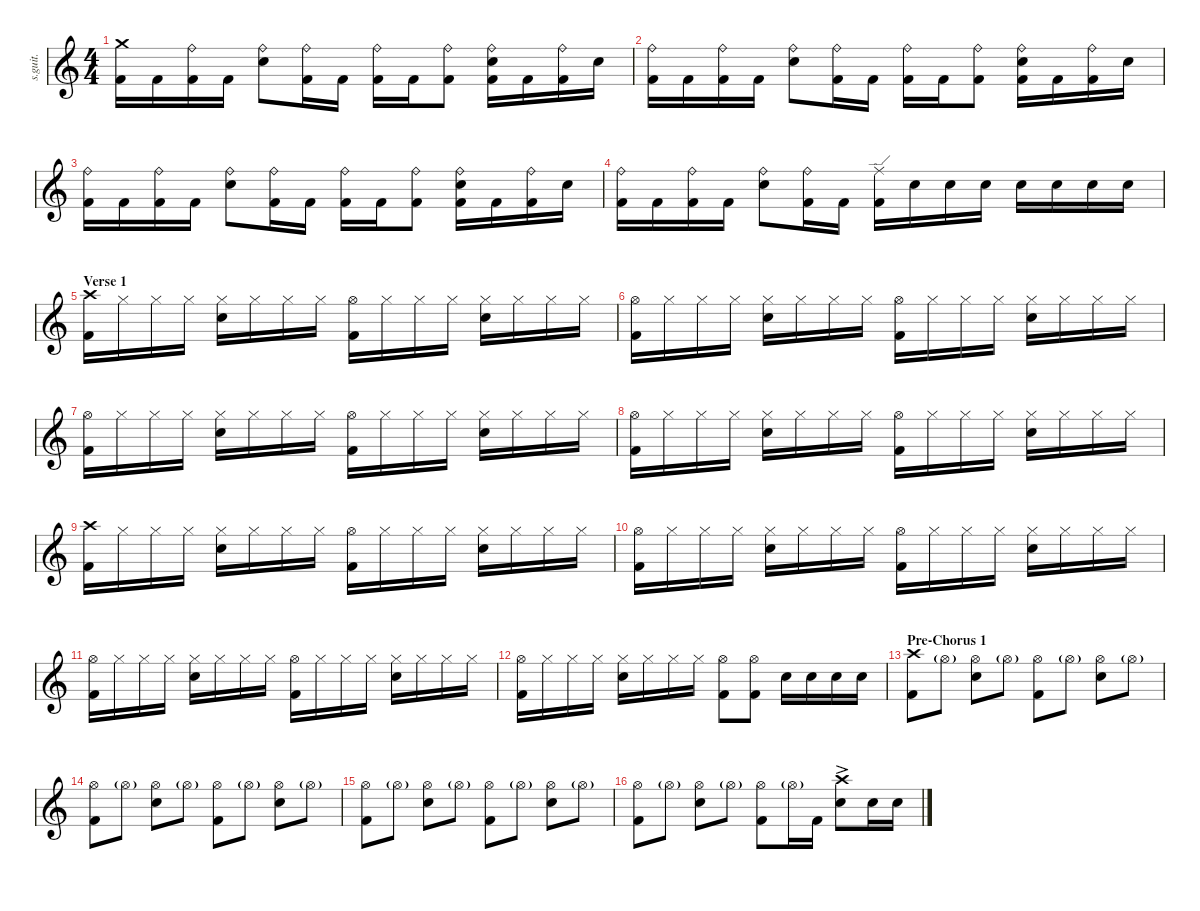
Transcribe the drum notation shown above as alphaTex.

\defaultSystemsLayout 4
\hideDynamics
\bracketExtendMode nobrackets
\track ("Mike Wengren" "s.guit.") {instrument percussion}
\staff {score}
\articulation defaults
\ts (4 4)
\tempo (90 hide)
\clef g2
\ks c
("Kick (hit) 2" "Crash medium (hit)").16{lyrics (0 "") lyrics (1 "") lyrics (2 "") lyrics (3 "") lyrics (4 "") dy ff} "Kick (hit) 2".16{lyrics (0 "") lyrics (1 "") lyrics (2 "") lyrics (3 "") lyrics (4 "")} ("Ride (bell)" "Kick (hit) 2").16{lyrics (0 "") lyrics (1 "") lyrics (2 "") lyrics (3 "") lyrics (4 "")} "Kick (hit) 2".16{lyrics (0 "") lyrics (1 "") lyrics (2 "") lyrics (3 "") lyrics (4 "")} ("Ride (bell)" "Snare (hit) 2").8{lyrics (0 "") lyrics (1 "") lyrics (2 "") lyrics (3 "") lyrics (4 "")} ("Ride (bell)" "Kick (hit) 2").16{lyrics (0 "") lyrics (1 "") lyrics (2 "") lyrics (3 "") lyrics (4 "")} "Kick (hit) 2".16{lyrics (0 "") lyrics (1 "") lyrics (2 "") lyrics (3 "") lyrics (4 "")} ("Ride (bell)" "Kick (hit) 2").16{lyrics (0 "") lyrics (1 "") lyrics (2 "") lyrics (3 "") lyrics (4 "")} "Kick (hit) 2".16{lyrics (0 "") lyrics (1 "") lyrics (2 "") lyrics (3 "") lyrics (4 "")} ("Ride (bell)" "Kick (hit) 2").8{lyrics (0 "") lyrics (1 "") lyrics (2 "") lyrics (3 "") lyrics (4 "")} ("Ride (bell)" "Kick (hit) 2" "Snare (hit) 2").16{lyrics (0 "") lyrics (1 "") lyrics (2 "") lyrics (3 "") lyrics (4 "")} "Kick (hit) 2".16{lyrics (0 "") lyrics (1 "") lyrics (2 "") lyrics (3 "") lyrics (4 "")} ("Ride (bell)" "Kick (hit) 2").16{lyrics (0 "") lyrics (1 "") lyrics (2 "") lyrics (3 "") lyrics (4 "")} "Snare (hit) 2".16{lyrics (0 "") lyrics (1 "") lyrics (2 "") lyrics (3 "") lyrics (4 "")} |
("Kick (hit) 2" "Ride (bell)").16{lyrics (0 "") lyrics (1 "") lyrics (2 "") lyrics (3 "") lyrics (4 "")} "Kick (hit) 2".16{lyrics (0 "") lyrics (1 "") lyrics (2 "") lyrics (3 "") lyrics (4 "")} ("Ride (bell)" "Kick (hit) 2").16{lyrics (0 "") lyrics (1 "") lyrics (2 "") lyrics (3 "") lyrics (4 "")} "Kick (hit) 2".16{lyrics (0 "") lyrics (1 "") lyrics (2 "") lyrics (3 "") lyrics (4 "")} ("Ride (bell)" "Snare (hit) 2").8{lyrics (0 "") lyrics (1 "") lyrics (2 "") lyrics (3 "") lyrics (4 "")} ("Ride (bell)" "Kick (hit) 2").16{lyrics (0 "") lyrics (1 "") lyrics (2 "") lyrics (3 "") lyrics (4 "")} "Kick (hit) 2".16{lyrics (0 "") lyrics (1 "") lyrics (2 "") lyrics (3 "") lyrics (4 "")} ("Ride (bell)" "Kick (hit) 2").16{lyrics (0 "") lyrics (1 "") lyrics (2 "") lyrics (3 "") lyrics (4 "")} "Kick (hit) 2".16{lyrics (0 "") lyrics (1 "") lyrics (2 "") lyrics (3 "") lyrics (4 "")} ("Ride (bell)" "Kick (hit) 2").8{lyrics (0 "") lyrics (1 "") lyrics (2 "") lyrics (3 "") lyrics (4 "")} ("Ride (bell)" "Kick (hit) 2" "Snare (hit) 2").16{lyrics (0 "") lyrics (1 "") lyrics (2 "") lyrics (3 "") lyrics (4 "")} "Kick (hit) 2".16{lyrics (0 "") lyrics (1 "") lyrics (2 "") lyrics (3 "") lyrics (4 "")} ("Ride (bell)" "Kick (hit) 2").16{lyrics (0 "") lyrics (1 "") lyrics (2 "") lyrics (3 "") lyrics (4 "")} "Snare (hit) 2".16{lyrics (0 "") lyrics (1 "") lyrics (2 "") lyrics (3 "") lyrics (4 "")} |
("Kick (hit) 2" "Ride (bell)").16{lyrics (0 "") lyrics (1 "") lyrics (2 "") lyrics (3 "") lyrics (4 "")} "Kick (hit) 2".16{lyrics (0 "") lyrics (1 "") lyrics (2 "") lyrics (3 "") lyrics (4 "")} ("Ride (bell)" "Kick (hit) 2").16{lyrics (0 "") lyrics (1 "") lyrics (2 "") lyrics (3 "") lyrics (4 "")} "Kick (hit) 2".16{lyrics (0 "") lyrics (1 "") lyrics (2 "") lyrics (3 "") lyrics (4 "")} ("Ride (bell)" "Snare (hit) 2").8{lyrics (0 "") lyrics (1 "") lyrics (2 "") lyrics (3 "") lyrics (4 "")} ("Ride (bell)" "Kick (hit) 2").16{lyrics (0 "") lyrics (1 "") lyrics (2 "") lyrics (3 "") lyrics (4 "")} "Kick (hit) 2".16{lyrics (0 "") lyrics (1 "") lyrics (2 "") lyrics (3 "") lyrics (4 "")} ("Ride (bell)" "Kick (hit) 2").16{lyrics (0 "") lyrics (1 "") lyrics (2 "") lyrics (3 "") lyrics (4 "")} "Kick (hit) 2".16{lyrics (0 "") lyrics (1 "") lyrics (2 "") lyrics (3 "") lyrics (4 "")} ("Ride (bell)" "Kick (hit) 2").8{lyrics (0 "") lyrics (1 "") lyrics (2 "") lyrics (3 "") lyrics (4 "")} ("Ride (bell)" "Kick (hit) 2" "Snare (hit) 2").16{lyrics (0 "") lyrics (1 "") lyrics (2 "") lyrics (3 "") lyrics (4 "")} "Kick (hit) 2".16{lyrics (0 "") lyrics (1 "") lyrics (2 "") lyrics (3 "") lyrics (4 "")} ("Ride (bell)" "Kick (hit) 2").16{lyrics (0 "") lyrics (1 "") lyrics (2 "") lyrics (3 "") lyrics (4 "")} "Snare (hit) 2".16{lyrics (0 "") lyrics (1 "") lyrics (2 "") lyrics (3 "") lyrics (4 "")} |
("Kick (hit) 2" "Ride (bell)").16{lyrics (0 "") lyrics (1 "") lyrics (2 "") lyrics (3 "") lyrics (4 "")} "Kick (hit) 2".16{lyrics (0 "") lyrics (1 "") lyrics (2 "") lyrics (3 "") lyrics (4 "")} ("Ride (bell)" "Kick (hit) 2").16{lyrics (0 "") lyrics (1 "") lyrics (2 "") lyrics (3 "") lyrics (4 "")} "Kick (hit) 2".16{lyrics (0 "") lyrics (1 "") lyrics (2 "") lyrics (3 "") lyrics (4 "")} ("Ride (bell)" "Snare (hit) 2").8{lyrics (0 "") lyrics (1 "") lyrics (2 "") lyrics (3 "") lyrics (4 "")} ("Ride (bell)" "Kick (hit) 2").16{lyrics (0 "") lyrics (1 "") lyrics (2 "") lyrics (3 "") lyrics (4 "")} "Kick (hit) 2".16{lyrics (0 "") lyrics (1 "") lyrics (2 "") lyrics (3 "") lyrics (4 "")} ("Kick (hit) 2" "Ride (edge)").16{lyrics (0 "") lyrics (1 "") lyrics (2 "") lyrics (3 "") lyrics (4 "")} "Snare (hit) 2".16{lyrics (0 "") lyrics (1 "") lyrics (2 "") lyrics (3 "") lyrics (4 "")} "Snare (hit) 2".16{lyrics (0 "") lyrics (1 "") lyrics (2 "") lyrics (3 "") lyrics (4 "")} "Snare (hit) 2".16{lyrics (0 "") lyrics (1 "") lyrics (2 "") lyrics (3 "") lyrics (4 "")} "Snare (hit) 2".16{lyrics (0 "") lyrics (1 "") lyrics (2 "") lyrics (3 "") lyrics (4 "")} "Snare (hit) 2".16{lyrics (0 "") lyrics (1 "") lyrics (2 "") lyrics (3 "") lyrics (4 "")} "Snare (hit) 2".16{lyrics (0 "") lyrics (1 "") lyrics (2 "") lyrics (3 "") lyrics (4 "")} "Snare (hit) 2".16{lyrics (0 "") lyrics (1 "") lyrics (2 "") lyrics (3 "") lyrics (4 "")} |
\section ("" "Verse 1")
("Crash high (hit)" "Kick (hit) 2").16{lyrics (0 "") lyrics (1 "") lyrics (2 "") lyrics (3 "") lyrics (4 "")} "Hi-Hat (closed)".16{lyrics (0 "") lyrics (1 "") lyrics (2 "") lyrics (3 "") lyrics (4 "")} "Hi-Hat (closed)".16{lyrics (0 "") lyrics (1 "") lyrics (2 "") lyrics (3 "") lyrics (4 "")} "Hi-Hat (closed)".16{lyrics (0 "") lyrics (1 "") lyrics (2 "") lyrics (3 "") lyrics (4 "")} ("Hi-Hat (closed)" "Snare (hit) 2").16{lyrics (0 "") lyrics (1 "") lyrics (2 "") lyrics (3 "") lyrics (4 "")} "Hi-Hat (closed)".16{lyrics (0 "") lyrics (1 "") lyrics (2 "") lyrics (3 "") lyrics (4 "")} "Hi-Hat (closed)".16{lyrics (0 "") lyrics (1 "") lyrics (2 "") lyrics (3 "") lyrics (4 "")} "Hi-Hat (closed)".16{lyrics (0 "") lyrics (1 "") lyrics (2 "") lyrics (3 "") lyrics (4 "")} ("Hi-Hat (open)" "Kick (hit) 2").16{lyrics (0 "") lyrics (1 "") lyrics (2 "") lyrics (3 "") lyrics (4 "")} "Hi-Hat (closed)".16{lyrics (0 "") lyrics (1 "") lyrics (2 "") lyrics (3 "") lyrics (4 "")} "Hi-Hat (closed)".16{lyrics (0 "") lyrics (1 "") lyrics (2 "") lyrics (3 "") lyrics (4 "")} "Hi-Hat (closed)".16{lyrics (0 "") lyrics (1 "") lyrics (2 "") lyrics (3 "") lyrics (4 "")} ("Hi-Hat (closed)" "Snare (hit) 2").16{lyrics (0 "") lyrics (1 "") lyrics (2 "") lyrics (3 "") lyrics (4 "")} "Hi-Hat (closed)".16{lyrics (0 "") lyrics (1 "") lyrics (2 "") lyrics (3 "") lyrics (4 "")} "Hi-Hat (closed)".16{lyrics (0 "") lyrics (1 "") lyrics (2 "") lyrics (3 "") lyrics (4 "")} "Hi-Hat (closed)".16{lyrics (0 "") lyrics (1 "") lyrics (2 "") lyrics (3 "") lyrics (4 "")} |
("Hi-Hat (open)" "Kick (hit) 2").16{lyrics (0 "") lyrics (1 "") lyrics (2 "") lyrics (3 "") lyrics (4 "")} "Hi-Hat (closed)".16{lyrics (0 "") lyrics (1 "") lyrics (2 "") lyrics (3 "") lyrics (4 "")} "Hi-Hat (closed)".16{lyrics (0 "") lyrics (1 "") lyrics (2 "") lyrics (3 "") lyrics (4 "")} "Hi-Hat (closed)".16{lyrics (0 "") lyrics (1 "") lyrics (2 "") lyrics (3 "") lyrics (4 "")} ("Hi-Hat (closed)" "Snare (hit) 2").16{lyrics (0 "") lyrics (1 "") lyrics (2 "") lyrics (3 "") lyrics (4 "")} "Hi-Hat (closed)".16{lyrics (0 "") lyrics (1 "") lyrics (2 "") lyrics (3 "") lyrics (4 "")} "Hi-Hat (closed)".16{lyrics (0 "") lyrics (1 "") lyrics (2 "") lyrics (3 "") lyrics (4 "")} "Hi-Hat (closed)".16{lyrics (0 "") lyrics (1 "") lyrics (2 "") lyrics (3 "") lyrics (4 "")} ("Hi-Hat (open)" "Kick (hit) 2").16{lyrics (0 "") lyrics (1 "") lyrics (2 "") lyrics (3 "") lyrics (4 "")} "Hi-Hat (closed)".16{lyrics (0 "") lyrics (1 "") lyrics (2 "") lyrics (3 "") lyrics (4 "")} "Hi-Hat (closed)".16{lyrics (0 "") lyrics (1 "") lyrics (2 "") lyrics (3 "") lyrics (4 "")} "Hi-Hat (closed)".16{lyrics (0 "") lyrics (1 "") lyrics (2 "") lyrics (3 "") lyrics (4 "")} ("Hi-Hat (closed)" "Snare (hit) 2").16{lyrics (0 "") lyrics (1 "") lyrics (2 "") lyrics (3 "") lyrics (4 "")} "Hi-Hat (closed)".16{lyrics (0 "") lyrics (1 "") lyrics (2 "") lyrics (3 "") lyrics (4 "")} "Hi-Hat (closed)".16{lyrics (0 "") lyrics (1 "") lyrics (2 "") lyrics (3 "") lyrics (4 "")} "Hi-Hat (closed)".16{lyrics (0 "") lyrics (1 "") lyrics (2 "") lyrics (3 "") lyrics (4 "")} |
("Hi-Hat (open)" "Kick (hit) 2").16{lyrics (0 "") lyrics (1 "") lyrics (2 "") lyrics (3 "") lyrics (4 "")} "Hi-Hat (closed)".16{lyrics (0 "") lyrics (1 "") lyrics (2 "") lyrics (3 "") lyrics (4 "")} "Hi-Hat (closed)".16{lyrics (0 "") lyrics (1 "") lyrics (2 "") lyrics (3 "") lyrics (4 "")} "Hi-Hat (closed)".16{lyrics (0 "") lyrics (1 "") lyrics (2 "") lyrics (3 "") lyrics (4 "")} ("Hi-Hat (closed)" "Snare (hit) 2").16{lyrics (0 "") lyrics (1 "") lyrics (2 "") lyrics (3 "") lyrics (4 "")} "Hi-Hat (closed)".16{lyrics (0 "") lyrics (1 "") lyrics (2 "") lyrics (3 "") lyrics (4 "")} "Hi-Hat (closed)".16{lyrics (0 "") lyrics (1 "") lyrics (2 "") lyrics (3 "") lyrics (4 "")} "Hi-Hat (closed)".16{lyrics (0 "") lyrics (1 "") lyrics (2 "") lyrics (3 "") lyrics (4 "")} ("Hi-Hat (open)" "Kick (hit) 2").16{lyrics (0 "") lyrics (1 "") lyrics (2 "") lyrics (3 "") lyrics (4 "")} "Hi-Hat (closed)".16{lyrics (0 "") lyrics (1 "") lyrics (2 "") lyrics (3 "") lyrics (4 "")} "Hi-Hat (closed)".16{lyrics (0 "") lyrics (1 "") lyrics (2 "") lyrics (3 "") lyrics (4 "")} "Hi-Hat (closed)".16{lyrics (0 "") lyrics (1 "") lyrics (2 "") lyrics (3 "") lyrics (4 "")} ("Hi-Hat (closed)" "Snare (hit) 2").16{lyrics (0 "") lyrics (1 "") lyrics (2 "") lyrics (3 "") lyrics (4 "")} "Hi-Hat (closed)".16{lyrics (0 "") lyrics (1 "") lyrics (2 "") lyrics (3 "") lyrics (4 "")} "Hi-Hat (closed)".16{lyrics (0 "") lyrics (1 "") lyrics (2 "") lyrics (3 "") lyrics (4 "")} "Hi-Hat (closed)".16{lyrics (0 "") lyrics (1 "") lyrics (2 "") lyrics (3 "") lyrics (4 "")} |
("Hi-Hat (open)" "Kick (hit) 2").16{lyrics (0 "") lyrics (1 "") lyrics (2 "") lyrics (3 "") lyrics (4 "")} "Hi-Hat (closed)".16{lyrics (0 "") lyrics (1 "") lyrics (2 "") lyrics (3 "") lyrics (4 "")} "Hi-Hat (closed)".16{lyrics (0 "") lyrics (1 "") lyrics (2 "") lyrics (3 "") lyrics (4 "")} "Hi-Hat (closed)".16{lyrics (0 "") lyrics (1 "") lyrics (2 "") lyrics (3 "") lyrics (4 "")} ("Hi-Hat (closed)" "Snare (hit) 2").16{lyrics (0 "") lyrics (1 "") lyrics (2 "") lyrics (3 "") lyrics (4 "")} "Hi-Hat (closed)".16{lyrics (0 "") lyrics (1 "") lyrics (2 "") lyrics (3 "") lyrics (4 "")} "Hi-Hat (closed)".16{lyrics (0 "") lyrics (1 "") lyrics (2 "") lyrics (3 "") lyrics (4 "")} "Hi-Hat (closed)".16{lyrics (0 "") lyrics (1 "") lyrics (2 "") lyrics (3 "") lyrics (4 "")} ("Hi-Hat (open)" "Kick (hit) 2").16{lyrics (0 "") lyrics (1 "") lyrics (2 "") lyrics (3 "") lyrics (4 "")} "Hi-Hat (closed)".16{lyrics (0 "") lyrics (1 "") lyrics (2 "") lyrics (3 "") lyrics (4 "")} "Hi-Hat (closed)".16{lyrics (0 "") lyrics (1 "") lyrics (2 "") lyrics (3 "") lyrics (4 "")} "Hi-Hat (closed)".16{lyrics (0 "") lyrics (1 "") lyrics (2 "") lyrics (3 "") lyrics (4 "")} ("Hi-Hat (closed)" "Snare (hit) 2").16{lyrics (0 "") lyrics (1 "") lyrics (2 "") lyrics (3 "") lyrics (4 "")} "Hi-Hat (closed)".16{lyrics (0 "") lyrics (1 "") lyrics (2 "") lyrics (3 "") lyrics (4 "")} "Hi-Hat (closed)".16{lyrics (0 "") lyrics (1 "") lyrics (2 "") lyrics (3 "") lyrics (4 "")} "Hi-Hat (closed)".16{lyrics (0 "") lyrics (1 "") lyrics (2 "") lyrics (3 "") lyrics (4 "")} |
("Crash high (hit)" "Kick (hit) 2").16{lyrics (0 "") lyrics (1 "") lyrics (2 "") lyrics (3 "") lyrics (4 "")} "Hi-Hat (closed)".16{lyrics (0 "") lyrics (1 "") lyrics (2 "") lyrics (3 "") lyrics (4 "")} "Hi-Hat (closed)".16{lyrics (0 "") lyrics (1 "") lyrics (2 "") lyrics (3 "") lyrics (4 "")} "Hi-Hat (closed)".16{lyrics (0 "") lyrics (1 "") lyrics (2 "") lyrics (3 "") lyrics (4 "")} ("Hi-Hat (closed)" "Snare (hit) 2").16{lyrics (0 "") lyrics (1 "") lyrics (2 "") lyrics (3 "") lyrics (4 "")} "Hi-Hat (closed)".16{lyrics (0 "") lyrics (1 "") lyrics (2 "") lyrics (3 "") lyrics (4 "")} "Hi-Hat (closed)".16{lyrics (0 "") lyrics (1 "") lyrics (2 "") lyrics (3 "") lyrics (4 "")} "Hi-Hat (closed)".16{lyrics (0 "") lyrics (1 "") lyrics (2 "") lyrics (3 "") lyrics (4 "")} ("Hi-Hat (open)" "Kick (hit) 2").16{lyrics (0 "") lyrics (1 "") lyrics (2 "") lyrics (3 "") lyrics (4 "")} "Hi-Hat (closed)".16{lyrics (0 "") lyrics (1 "") lyrics (2 "") lyrics (3 "") lyrics (4 "")} "Hi-Hat (closed)".16{lyrics (0 "") lyrics (1 "") lyrics (2 "") lyrics (3 "") lyrics (4 "")} "Hi-Hat (closed)".16{lyrics (0 "") lyrics (1 "") lyrics (2 "") lyrics (3 "") lyrics (4 "")} ("Hi-Hat (closed)" "Snare (hit) 2").16{lyrics (0 "") lyrics (1 "") lyrics (2 "") lyrics (3 "") lyrics (4 "")} "Hi-Hat (closed)".16{lyrics (0 "") lyrics (1 "") lyrics (2 "") lyrics (3 "") lyrics (4 "")} "Hi-Hat (closed)".16{lyrics (0 "") lyrics (1 "") lyrics (2 "") lyrics (3 "") lyrics (4 "")} "Hi-Hat (closed)".16{lyrics (0 "") lyrics (1 "") lyrics (2 "") lyrics (3 "") lyrics (4 "")} |
("Hi-Hat (open)" "Kick (hit) 2").16{lyrics (0 "") lyrics (1 "") lyrics (2 "") lyrics (3 "") lyrics (4 "")} "Hi-Hat (closed)".16{lyrics (0 "") lyrics (1 "") lyrics (2 "") lyrics (3 "") lyrics (4 "")} "Hi-Hat (closed)".16{lyrics (0 "") lyrics (1 "") lyrics (2 "") lyrics (3 "") lyrics (4 "")} "Hi-Hat (closed)".16{lyrics (0 "") lyrics (1 "") lyrics (2 "") lyrics (3 "") lyrics (4 "")} ("Hi-Hat (closed)" "Snare (hit) 2").16{lyrics (0 "") lyrics (1 "") lyrics (2 "") lyrics (3 "") lyrics (4 "")} "Hi-Hat (closed)".16{lyrics (0 "") lyrics (1 "") lyrics (2 "") lyrics (3 "") lyrics (4 "")} "Hi-Hat (closed)".16{lyrics (0 "") lyrics (1 "") lyrics (2 "") lyrics (3 "") lyrics (4 "")} "Hi-Hat (closed)".16{lyrics (0 "") lyrics (1 "") lyrics (2 "") lyrics (3 "") lyrics (4 "")} ("Hi-Hat (open)" "Kick (hit) 2").16{lyrics (0 "") lyrics (1 "") lyrics (2 "") lyrics (3 "") lyrics (4 "")} "Hi-Hat (closed)".16{lyrics (0 "") lyrics (1 "") lyrics (2 "") lyrics (3 "") lyrics (4 "")} "Hi-Hat (closed)".16{lyrics (0 "") lyrics (1 "") lyrics (2 "") lyrics (3 "") lyrics (4 "")} "Hi-Hat (closed)".16{lyrics (0 "") lyrics (1 "") lyrics (2 "") lyrics (3 "") lyrics (4 "")} ("Hi-Hat (closed)" "Snare (hit) 2").16{lyrics (0 "") lyrics (1 "") lyrics (2 "") lyrics (3 "") lyrics (4 "")} "Hi-Hat (closed)".16{lyrics (0 "") lyrics (1 "") lyrics (2 "") lyrics (3 "") lyrics (4 "")} "Hi-Hat (closed)".16{lyrics (0 "") lyrics (1 "") lyrics (2 "") lyrics (3 "") lyrics (4 "")} "Hi-Hat (closed)".16{lyrics (0 "") lyrics (1 "") lyrics (2 "") lyrics (3 "") lyrics (4 "")} |
("Hi-Hat (open)" "Kick (hit) 2").16{lyrics (0 "") lyrics (1 "") lyrics (2 "") lyrics (3 "") lyrics (4 "")} "Hi-Hat (closed)".16{lyrics (0 "") lyrics (1 "") lyrics (2 "") lyrics (3 "") lyrics (4 "")} "Hi-Hat (closed)".16{lyrics (0 "") lyrics (1 "") lyrics (2 "") lyrics (3 "") lyrics (4 "")} "Hi-Hat (closed)".16{lyrics (0 "") lyrics (1 "") lyrics (2 "") lyrics (3 "") lyrics (4 "")} ("Hi-Hat (closed)" "Snare (hit) 2").16{lyrics (0 "") lyrics (1 "") lyrics (2 "") lyrics (3 "") lyrics (4 "")} "Hi-Hat (closed)".16{lyrics (0 "") lyrics (1 "") lyrics (2 "") lyrics (3 "") lyrics (4 "")} "Hi-Hat (closed)".16{lyrics (0 "") lyrics (1 "") lyrics (2 "") lyrics (3 "") lyrics (4 "")} "Hi-Hat (closed)".16{lyrics (0 "") lyrics (1 "") lyrics (2 "") lyrics (3 "") lyrics (4 "")} ("Hi-Hat (open)" "Kick (hit) 2").16{lyrics (0 "") lyrics (1 "") lyrics (2 "") lyrics (3 "") lyrics (4 "")} "Hi-Hat (closed)".16{lyrics (0 "") lyrics (1 "") lyrics (2 "") lyrics (3 "") lyrics (4 "")} "Hi-Hat (closed)".16{lyrics (0 "") lyrics (1 "") lyrics (2 "") lyrics (3 "") lyrics (4 "")} "Hi-Hat (closed)".16{lyrics (0 "") lyrics (1 "") lyrics (2 "") lyrics (3 "") lyrics (4 "")} ("Hi-Hat (closed)" "Snare (hit) 2").16{lyrics (0 "") lyrics (1 "") lyrics (2 "") lyrics (3 "") lyrics (4 "")} "Hi-Hat (closed)".16{lyrics (0 "") lyrics (1 "") lyrics (2 "") lyrics (3 "") lyrics (4 "")} "Hi-Hat (closed)".16{lyrics (0 "") lyrics (1 "") lyrics (2 "") lyrics (3 "") lyrics (4 "")} "Hi-Hat (closed)".16{lyrics (0 "") lyrics (1 "") lyrics (2 "") lyrics (3 "") lyrics (4 "")} |
("Hi-Hat (open)" "Kick (hit) 2").16{lyrics (0 "") lyrics (1 "") lyrics (2 "") lyrics (3 "") lyrics (4 "")} "Hi-Hat (closed)".16{lyrics (0 "") lyrics (1 "") lyrics (2 "") lyrics (3 "") lyrics (4 "")} "Hi-Hat (closed)".16{lyrics (0 "") lyrics (1 "") lyrics (2 "") lyrics (3 "") lyrics (4 "")} "Hi-Hat (closed)".16{lyrics (0 "") lyrics (1 "") lyrics (2 "") lyrics (3 "") lyrics (4 "")} ("Hi-Hat (closed)" "Snare (hit) 2").16{lyrics (0 "") lyrics (1 "") lyrics (2 "") lyrics (3 "") lyrics (4 "")} "Hi-Hat (closed)".16{lyrics (0 "") lyrics (1 "") lyrics (2 "") lyrics (3 "") lyrics (4 "")} "Hi-Hat (closed)".16{lyrics (0 "") lyrics (1 "") lyrics (2 "") lyrics (3 "") lyrics (4 "")} "Hi-Hat (closed)".16{lyrics (0 "") lyrics (1 "") lyrics (2 "") lyrics (3 "") lyrics (4 "")} ("Hi-Hat (open)" "Kick (hit) 2").8{lyrics (0 "") lyrics (1 "") lyrics (2 "") lyrics (3 "") lyrics (4 "")} ("Hi-Hat (open)" "Kick (hit) 2").8{lyrics (0 "") lyrics (1 "") lyrics (2 "") lyrics (3 "") lyrics (4 "")} "Snare (hit) 2".16{lyrics (0 "") lyrics (1 "") lyrics (2 "") lyrics (3 "") lyrics (4 "")} "Snare (hit) 2".16{lyrics (0 "") lyrics (1 "") lyrics (2 "") lyrics (3 "") lyrics (4 "")} "Snare (hit) 2".16{lyrics (0 "") lyrics (1 "") lyrics (2 "") lyrics (3 "") lyrics (4 "")} "Snare (hit) 2".16{lyrics (0 "") lyrics (1 "") lyrics (2 "") lyrics (3 "") lyrics (4 "")} |
\section ("" "Pre-Chorus 1")
("Crash high (hit)" "Kick (hit) 2").8{lyrics (0 "") lyrics (1 "") lyrics (2 "") lyrics (3 "") lyrics (4 "")} "Hi-Hat (open)"{g}.8{lyrics (0 "") lyrics (1 "") lyrics (2 "") lyrics (3 "") lyrics (4 "")} ("Hi-Hat (open)" "Snare (hit) 2").8{lyrics (0 "") lyrics (1 "") lyrics (2 "") lyrics (3 "") lyrics (4 "")} "Hi-Hat (open)"{g}.8{lyrics (0 "") lyrics (1 "") lyrics (2 "") lyrics (3 "") lyrics (4 "")} ("Hi-Hat (open)" "Kick (hit) 2").8{lyrics (0 "") lyrics (1 "") lyrics (2 "") lyrics (3 "") lyrics (4 "")} "Hi-Hat (open)"{g}.8{lyrics (0 "") lyrics (1 "") lyrics (2 "") lyrics (3 "") lyrics (4 "")} ("Hi-Hat (open)" "Snare (hit) 2").8{lyrics (0 "") lyrics (1 "") lyrics (2 "") lyrics (3 "") lyrics (4 "")} "Hi-Hat (open)"{g}.8{lyrics (0 "") lyrics (1 "") lyrics (2 "") lyrics (3 "") lyrics (4 "")} |
("Hi-Hat (open)" "Kick (hit) 2").8{lyrics (0 "") lyrics (1 "") lyrics (2 "") lyrics (3 "") lyrics (4 "")} "Hi-Hat (open)"{g}.8{lyrics (0 "") lyrics (1 "") lyrics (2 "") lyrics (3 "") lyrics (4 "")} ("Hi-Hat (open)" "Snare (hit) 2").8{lyrics (0 "") lyrics (1 "") lyrics (2 "") lyrics (3 "") lyrics (4 "")} "Hi-Hat (open)"{g}.8{lyrics (0 "") lyrics (1 "") lyrics (2 "") lyrics (3 "") lyrics (4 "")} ("Hi-Hat (open)" "Kick (hit) 2").8{lyrics (0 "") lyrics (1 "") lyrics (2 "") lyrics (3 "") lyrics (4 "")} "Hi-Hat (open)"{g}.8{lyrics (0 "") lyrics (1 "") lyrics (2 "") lyrics (3 "") lyrics (4 "")} ("Hi-Hat (open)" "Snare (hit) 2").8{lyrics (0 "") lyrics (1 "") lyrics (2 "") lyrics (3 "") lyrics (4 "")} "Hi-Hat (open)"{g}.8{lyrics (0 "") lyrics (1 "") lyrics (2 "") lyrics (3 "") lyrics (4 "")} |
("Hi-Hat (open)" "Kick (hit) 2").8{lyrics (0 "") lyrics (1 "") lyrics (2 "") lyrics (3 "") lyrics (4 "")} "Hi-Hat (open)"{g}.8{lyrics (0 "") lyrics (1 "") lyrics (2 "") lyrics (3 "") lyrics (4 "")} ("Hi-Hat (open)" "Snare (hit) 2").8{lyrics (0 "") lyrics (1 "") lyrics (2 "") lyrics (3 "") lyrics (4 "")} "Hi-Hat (open)"{g}.8{lyrics (0 "") lyrics (1 "") lyrics (2 "") lyrics (3 "") lyrics (4 "")} ("Hi-Hat (open)" "Kick (hit) 2").8{lyrics (0 "") lyrics (1 "") lyrics (2 "") lyrics (3 "") lyrics (4 "")} "Hi-Hat (open)"{g}.8{lyrics (0 "") lyrics (1 "") lyrics (2 "") lyrics (3 "") lyrics (4 "")} ("Hi-Hat (open)" "Snare (hit) 2").8{lyrics (0 "") lyrics (1 "") lyrics (2 "") lyrics (3 "") lyrics (4 "")} "Hi-Hat (open)"{g}.8{lyrics (0 "") lyrics (1 "") lyrics (2 "") lyrics (3 "") lyrics (4 "")} |
("Hi-Hat (open)" "Kick (hit) 2").8{lyrics (0 "") lyrics (1 "") lyrics (2 "") lyrics (3 "") lyrics (4 "")} "Hi-Hat (open)"{g}.8{lyrics (0 "") lyrics (1 "") lyrics (2 "") lyrics (3 "") lyrics (4 "")} ("Hi-Hat (open)" "Snare (hit) 2").8{lyrics (0 "") lyrics (1 "") lyrics (2 "") lyrics (3 "") lyrics (4 "")} "Hi-Hat (open)"{g}.8{lyrics (0 "") lyrics (1 "") lyrics (2 "") lyrics (3 "") lyrics (4 "")} ("Hi-Hat (open)" "Kick (hit) 2").8{lyrics (0 "") lyrics (1 "") lyrics (2 "") lyrics (3 "") lyrics (4 "")} "Hi-Hat (open)"{g}.16{lyrics (0 "") lyrics (1 "") lyrics (2 "") lyrics (3 "") lyrics (4 "")} "Kick (hit) 2".16{lyrics (0 "") lyrics (1 "") lyrics (2 "") lyrics (3 "") lyrics (4 "")} ("Snare (hit) 2"{ac} "Crash high (hit)"{ac}).8{lyrics (0 "") lyrics (1 "") lyrics (2 "") lyrics (3 "") lyrics (4 "")} "Snare (hit) 2".16{lyrics (0 "") lyrics (1 "") lyrics (2 "") lyrics (3 "") lyrics (4 "")} "Snare (hit) 2".16{lyrics (0 "") lyrics (1 "") lyrics (2 "") lyrics (3 "") lyrics (4 "")}
